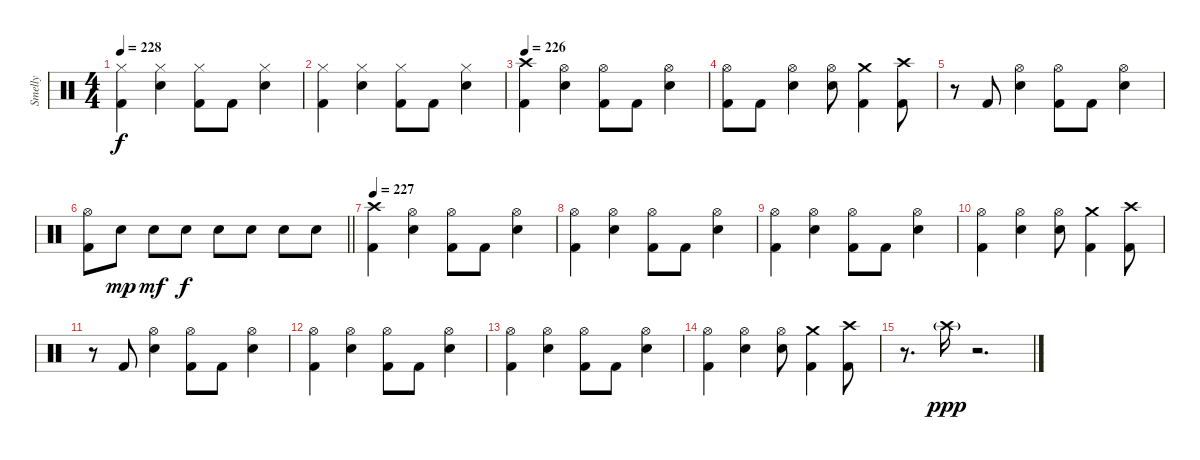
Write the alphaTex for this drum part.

\track ("Smelly" "Smelly") {instrument percussion}
\staff {score}
\articulation defaults
\ts (4 4)
\tempo 228
\clef neutral
\ks c
("Hi-Hat (closed)" "Kick (hit) 2").4{dy f} ("Hi-Hat (closed)" "Electric Snare (hit)").4 ("Hi-Hat (closed)" "Kick (hit) 2").8 "Kick (hit) 2".8 ("Hi-Hat (closed)" "Electric Snare (hit)").4 |
("Hi-Hat (closed)" "Kick (hit) 2").4 ("Hi-Hat (closed)" "Electric Snare (hit)").4 ("Hi-Hat (closed)" "Kick (hit) 2").8 "Kick (hit) 2".8 ("Hi-Hat (closed)" "Electric Snare (hit)").4 |
\tempo 226
("Crash high (hit)" "Kick (hit) 2").4 ("Hi-Hat (open)" "Electric Snare (hit)").4 ("Hi-Hat (open)" "Kick (hit) 2").8 "Kick (hit) 2".8 ("Hi-Hat (open)" "Electric Snare (hit)").4 |
("Hi-Hat (open)" "Kick (hit) 2").8 "Kick (hit) 2".8 ("Hi-Hat (open)" "Electric Snare (hit)").4 ("Hi-Hat (open)" "Electric Snare (hit)").8 ("Crash medium (hit)" "Kick (hit) 2").4 ("Crash high (hit)" "Kick (hit) 2").8 |
r.8 "Kick (hit) 2".8 ("Hi-Hat (open)" "Electric Snare (hit)").4 ("Hi-Hat (open)" "Kick (hit) 2").8 "Kick (hit) 2".8 ("Hi-Hat (open)" "Electric Snare (hit)").4 |
\barLineRight lightlight
("Hi-Hat (open)" "Kick (hit) 2").8 "Electric Snare (hit)".8{dy mp} "Electric Snare (hit)".8{dy mf} "Electric Snare (hit)".8{dy f} "Electric Snare (hit)".8 "Electric Snare (hit)".8 "Electric Snare (hit)".8 "Electric Snare (hit)".8 |
\section ("" "")
\tempo 227
("Crash high (hit)" "Kick (hit) 2").4 ("Hi-Hat (open)" "Electric Snare (hit)").4 ("Hi-Hat (open)" "Kick (hit) 2").8 "Kick (hit) 2".8 ("Hi-Hat (open)" "Electric Snare (hit)").4 |
("Hi-Hat (open)" "Kick (hit) 2").4 ("Hi-Hat (open)" "Electric Snare (hit)").4 ("Hi-Hat (open)" "Kick (hit) 2").8 "Kick (hit) 2".8 ("Hi-Hat (open)" "Electric Snare (hit)").4 |
("Hi-Hat (open)" "Kick (hit) 2").4 ("Hi-Hat (open)" "Electric Snare (hit)").4 ("Hi-Hat (open)" "Kick (hit) 2").8 "Kick (hit) 2".8 ("Hi-Hat (open)" "Electric Snare (hit)").4 |
("Hi-Hat (open)" "Kick (hit) 2").4 ("Hi-Hat (open)" "Electric Snare (hit)").4 ("Hi-Hat (open)" "Electric Snare (hit)").8 ("Crash medium (hit)" "Kick (hit) 2").4 ("Crash high (hit)" "Kick (hit) 2").8 |
r.8 "Kick (hit) 2".8 ("Hi-Hat (open)" "Electric Snare (hit)").4 ("Hi-Hat (open)" "Kick (hit) 2").8 "Kick (hit) 2".8 ("Hi-Hat (open)" "Electric Snare (hit)").4 |
("Hi-Hat (open)" "Kick (hit) 2").4 ("Hi-Hat (open)" "Electric Snare (hit)").4 ("Hi-Hat (open)" "Kick (hit) 2").8 "Kick (hit) 2".8 ("Hi-Hat (open)" "Electric Snare (hit)").4 |
("Hi-Hat (open)" "Kick (hit) 2").4 ("Hi-Hat (open)" "Electric Snare (hit)").4 ("Hi-Hat (open)" "Kick (hit) 2").8 "Kick (hit) 2".8 ("Hi-Hat (open)" "Electric Snare (hit)").4 |
("Hi-Hat (open)" "Kick (hit) 2").4 ("Hi-Hat (open)" "Electric Snare (hit)").4 ("Hi-Hat (open)" "Electric Snare (hit)").8 ("Crash medium (hit)" "Kick (hit) 2").4 ("Crash high (hit)" "Kick (hit) 2").8 |
r.8{d} "Crash high (hit)"{g}.16{dy ppp} r.2{d}
